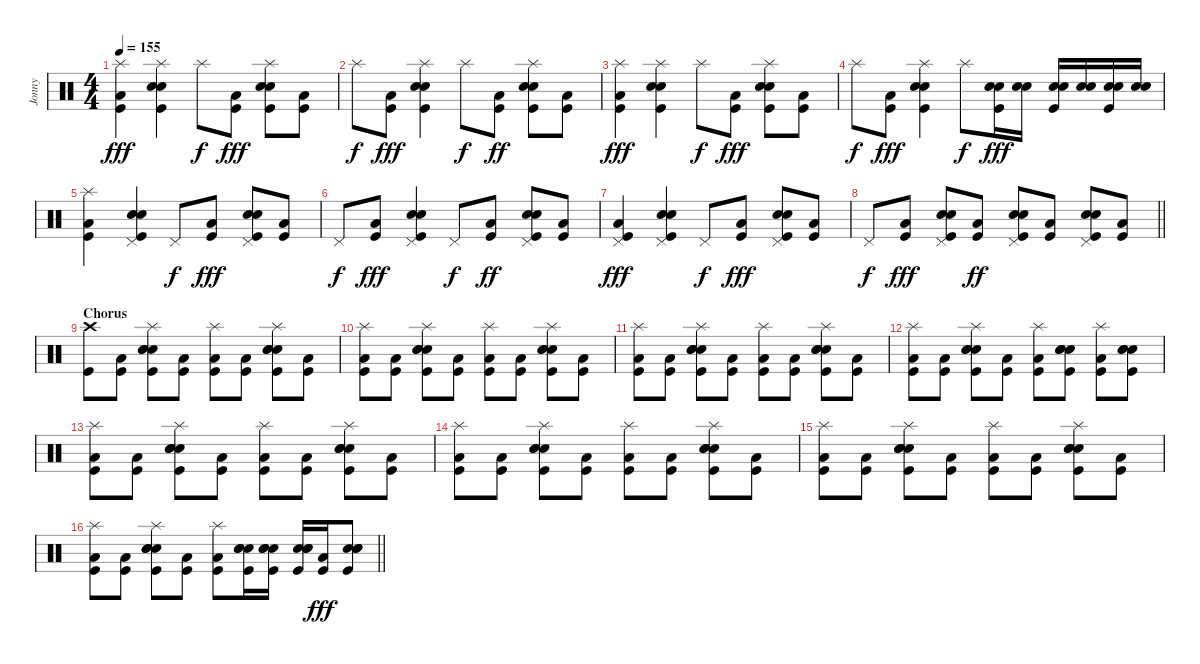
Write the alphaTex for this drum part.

\track ("Jonny" "Jonny") {instrument percussion}
\staff {score}
\articulation defaults
\ts (4 4)
\tempo 155
\clef neutral
\ks c
("Splash (hit)" "Low Floor Tom (hit)" "Kick (hit)").4{dy fff} ("Splash (hit)" "Electric Snare (hit)" "Electric Snare (hit)" "Kick (hit)").4 "Splash (hit)".8{dy f} ("Low Floor Tom (hit)" "Kick (hit)").8{dy fff} ("Splash (hit)" "Electric Snare (hit)" "Electric Snare (hit)" "Kick (hit)").8 ("Low Floor Tom (hit)" "Kick (hit)").8 |
"Splash (hit)".8{dy f} ("Low Floor Tom (hit)" "Kick (hit)").8{dy fff} ("Splash (hit)" "Electric Snare (hit)" "Electric Snare (hit)" "Kick (hit)").4 "Splash (hit)".8{dy f} ("Low Floor Tom (hit)" "Kick (hit)").8{dy ff} ("Splash (hit)" "Electric Snare (hit)" "Electric Snare (hit)" "Kick (hit)").8 ("Low Floor Tom (hit)" "Kick (hit)").8 |
("Splash (hit)" "Low Floor Tom (hit)" "Kick (hit)").4{dy fff} ("Splash (hit)" "Electric Snare (hit)" "Electric Snare (hit)" "Kick (hit)").4 "Splash (hit)".8{dy f} ("Low Floor Tom (hit)" "Kick (hit)").8{dy fff} ("Splash (hit)" "Electric Snare (hit)" "Electric Snare (hit)" "Kick (hit)").8 ("Low Floor Tom (hit)" "Kick (hit)").8 |
"Splash (hit)".8{dy f} ("Low Floor Tom (hit)" "Kick (hit)").8{dy fff} ("Splash (hit)" "Electric Snare (hit)" "Electric Snare (hit)" "Kick (hit)").4 "Splash (hit)".8{dy f} ("Electric Snare (hit)" "Electric Snare (hit)" "Kick (hit)").16{dy fff} ("Electric Snare (hit)" "Electric Snare (hit)").16 ("Electric Snare (hit)" "Electric Snare (hit)" "Kick (hit)").16 ("Electric Snare (hit)" "Electric Snare (hit)").16 ("Electric Snare (hit)" "Electric Snare (hit)" "Kick (hit)").16 ("Electric Snare (hit)" "Electric Snare (hit)").16 |
("Splash (hit)" "Low Floor Tom (hit)" "Kick (hit)").4 ("Pedal Hi-Hat (hit)" "Electric Snare (hit)" "Electric Snare (hit)" "Kick (hit)").4 "Pedal Hi-Hat (hit)".8{dy f} ("Low Floor Tom (hit)" "Kick (hit)").8{dy fff} ("Pedal Hi-Hat (hit)" "Electric Snare (hit)" "Electric Snare (hit)" "Kick (hit)").8 ("Low Floor Tom (hit)" "Kick (hit)").8 |
"Pedal Hi-Hat (hit)".8{dy f} ("Low Floor Tom (hit)" "Kick (hit)").8{dy fff} ("Pedal Hi-Hat (hit)" "Electric Snare (hit)" "Electric Snare (hit)" "Kick (hit)").4 "Pedal Hi-Hat (hit)".8{dy f} ("Low Floor Tom (hit)" "Kick (hit)").8{dy ff} ("Pedal Hi-Hat (hit)" "Electric Snare (hit)" "Electric Snare (hit)" "Kick (hit)").8 ("Low Floor Tom (hit)" "Kick (hit)").8 |
("Pedal Hi-Hat (hit)" "Low Floor Tom (hit)" "Kick (hit)").4{dy fff} ("Pedal Hi-Hat (hit)" "Electric Snare (hit)" "Electric Snare (hit)" "Kick (hit)").4 "Pedal Hi-Hat (hit)".8{dy f} ("Low Floor Tom (hit)" "Kick (hit)").8{dy fff} ("Pedal Hi-Hat (hit)" "Electric Snare (hit)" "Electric Snare (hit)" "Kick (hit)").8 ("Low Floor Tom (hit)" "Kick (hit)").8 |
\barLineRight lightlight "Pedal Hi-Hat (hit)".8{dy f}
("Low Floor Tom (hit)" "Kick (hit)").8{dy fff} ("Pedal Hi-Hat (hit)" "Electric Snare (hit)" "Electric Snare (hit)" "Kick (hit)").8 ("Low Floor Tom (hit)" "Kick (hit)").8{dy ff} ("Pedal Hi-Hat (hit)" "Electric Snare (hit)" "Electric Snare (hit)" "Kick (hit)").8 ("Low Floor Tom (hit)" "Kick (hit)").8 ("Pedal Hi-Hat (hit)" "Electric Snare (hit)" "Electric Snare (hit)" "Kick (hit)").8 ("Low Floor Tom (hit)" "Kick (hit)").8 |
\section ("" "Chorus")
("Crash high (hit)" "Kick (hit)").8 ("Low Floor Tom (hit)" "Kick (hit)").8 ("Splash (hit)" "Electric Snare (hit)" "Electric Snare (hit)" "Electric Snare (hit)" "Kick (hit)").8 ("Low Floor Tom (hit)" "Kick (hit)").8 ("Splash (hit)" "Low Floor Tom (hit)" "Kick (hit)").8 ("Low Floor Tom (hit)" "Kick (hit)").8 ("Splash (hit)" "Electric Snare (hit)" "Electric Snare (hit)" "Electric Snare (hit)" "Kick (hit)").8 ("Low Floor Tom (hit)" "Kick (hit)").8 |
("Splash (hit)" "Low Floor Tom (hit)" "Kick (hit)").8 ("Low Floor Tom (hit)" "Kick (hit)").8 ("Splash (hit)" "Electric Snare (hit)" "Electric Snare (hit)" "Electric Snare (hit)" "Kick (hit)").8 ("Low Floor Tom (hit)" "Kick (hit)").8 ("Splash (hit)" "Low Floor Tom (hit)" "Kick (hit)").8 ("Low Floor Tom (hit)" "Kick (hit)").8 ("Splash (hit)" "Electric Snare (hit)" "Electric Snare (hit)" "Electric Snare (hit)" "Kick (hit)").8 ("Low Floor Tom (hit)" "Kick (hit)").8 |
("Splash (hit)" "Low Floor Tom (hit)" "Kick (hit)").8 ("Low Floor Tom (hit)" "Kick (hit)").8 ("Splash (hit)" "Electric Snare (hit)" "Electric Snare (hit)" "Electric Snare (hit)" "Kick (hit)").8 ("Low Floor Tom (hit)" "Kick (hit)").8 ("Splash (hit)" "Low Floor Tom (hit)" "Kick (hit)").8 ("Low Floor Tom (hit)" "Kick (hit)").8 ("Splash (hit)" "Electric Snare (hit)" "Electric Snare (hit)" "Electric Snare (hit)" "Kick (hit)").8 ("Low Floor Tom (hit)" "Kick (hit)").8 |
("Splash (hit)" "Low Floor Tom (hit)" "Kick (hit)").8 ("Low Floor Tom (hit)" "Kick (hit)").8 ("Splash (hit)" "Electric Snare (hit)" "Electric Snare (hit)" "Electric Snare (hit)" "Kick (hit)").8 ("Low Floor Tom (hit)" "Kick (hit)").8 ("Splash (hit)" "Low Floor Tom (hit)" "Kick (hit)").8 ("Electric Snare (hit)" "Electric Snare (hit)" "Electric Snare (hit)" "Kick (hit)").8 ("Splash (hit)" "Low Floor Tom (hit)" "Kick (hit)").8 ("Electric Snare (hit)" "Electric Snare (hit)" "Electric Snare (hit)" "Kick (hit)").8 |
("Splash (hit)" "Low Floor Tom (hit)" "Kick (hit)").8 ("Low Floor Tom (hit)" "Kick (hit)").8 ("Splash (hit)" "Electric Snare (hit)" "Electric Snare (hit)" "Electric Snare (hit)" "Kick (hit)").8 ("Low Floor Tom (hit)" "Kick (hit)").8 ("Splash (hit)" "Low Floor Tom (hit)" "Kick (hit)").8 ("Low Floor Tom (hit)" "Kick (hit)").8 ("Splash (hit)" "Electric Snare (hit)" "Electric Snare (hit)" "Electric Snare (hit)" "Kick (hit)").8 ("Low Floor Tom (hit)" "Kick (hit)").8 |
("Splash (hit)" "Low Floor Tom (hit)" "Kick (hit)").8 ("Low Floor Tom (hit)" "Kick (hit)").8 ("Splash (hit)" "Electric Snare (hit)" "Electric Snare (hit)" "Electric Snare (hit)" "Kick (hit)").8 ("Low Floor Tom (hit)" "Kick (hit)").8 ("Splash (hit)" "Low Floor Tom (hit)" "Kick (hit)").8 ("Low Floor Tom (hit)" "Kick (hit)").8 ("Splash (hit)" "Electric Snare (hit)" "Electric Snare (hit)" "Electric Snare (hit)" "Kick (hit)").8 ("Low Floor Tom (hit)" "Kick (hit)").8 |
("Splash (hit)" "Low Floor Tom (hit)" "Kick (hit)").8 ("Low Floor Tom (hit)" "Kick (hit)").8 ("Splash (hit)" "Electric Snare (hit)" "Electric Snare (hit)" "Electric Snare (hit)" "Kick (hit)").8 ("Low Floor Tom (hit)" "Kick (hit)").8 ("Splash (hit)" "Low Floor Tom (hit)" "Kick (hit)").8 ("Low Floor Tom (hit)" "Kick (hit)").8 ("Splash (hit)" "Electric Snare (hit)" "Electric Snare (hit)" "Electric Snare (hit)" "Kick (hit)").8 ("Low Floor Tom (hit)" "Kick (hit)").8 |
\barLineRight lightlight
("Splash (hit)" "Low Floor Tom (hit)" "Kick (hit)").8 ("Low Floor Tom (hit)" "Kick (hit)").8 ("Splash (hit)" "Electric Snare (hit)" "Electric Snare (hit)" "Electric Snare (hit)" "Kick (hit)").8 ("Low Floor Tom (hit)" "Kick (hit)").8 ("Splash (hit)" "Low Floor Tom (hit)" "Kick (hit)").8 ("Electric Snare (hit)" "Electric Snare (hit)" "Electric Snare (hit)" "Kick (hit)").16 ("Electric Snare (hit)" "Electric Snare (hit)" "Electric Snare (hit)" "Kick (hit)").16 ("Electric Snare (hit)" "Electric Snare (hit)" "Electric Snare (hit)" "Kick (hit)").16 ("Low Floor Tom (hit)" "Kick (hit)").16{dy fff} ("Electric Snare (hit)" "Electric Snare (hit)" "Electric Snare (hit)" "Kick (hit)").8
